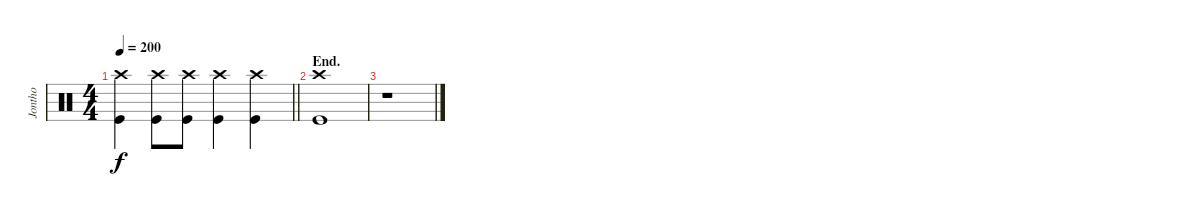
\track ("Jontho" "Jontho") {instrument percussion}
\staff {score}
\articulation defaults
\ts (4 4)
\tempo 200
\clef neutral
\barLineRight lightlight
\ks c
("Crash high (hit)" "Kick (hit)").4{dy f} ("Crash high (hit)" "Kick (hit)").8 ("Crash high (hit)" "Kick (hit)").8 ("Crash high (hit)" "Kick (hit)").4 ("Crash high (hit)" "Kick (hit)").4 |
\section ("" "End.")
("Crash high (hit)" "Kick (hit)").1 |
r.1
